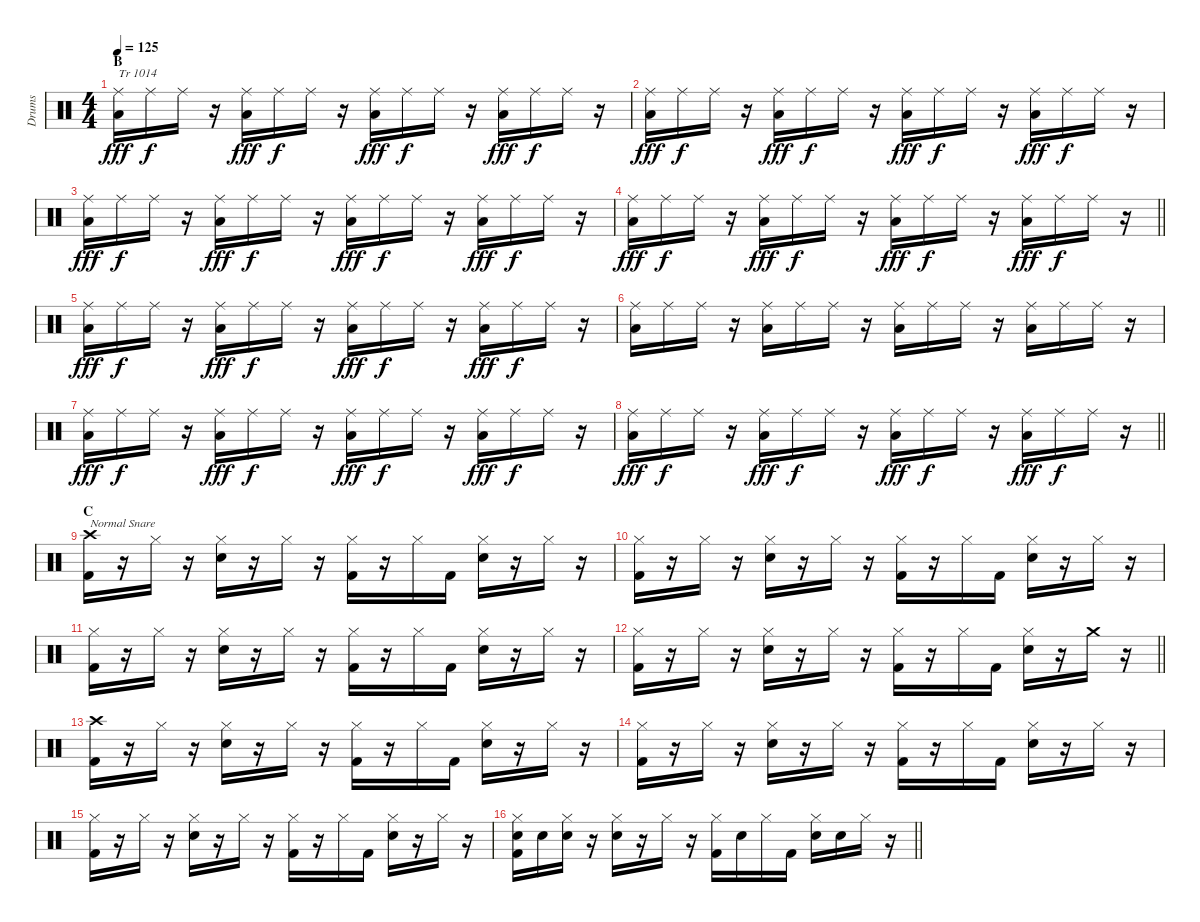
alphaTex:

\track ("Drums" "Drums") {instrument percussion}
\staff {score}
\articulation defaults
\ts (4 4)
\section ("" "B")
\tempo 125
\clef neutral
\ks c
("Ride (middle)" "Low Tom (hit)").16{txt "Tr 1014" dy fff} "Ride (middle)".16{dy f} "Ride (middle)".16 r.16 ("Ride (middle)" "Low Tom (hit)").16{dy fff} "Ride (middle)".16{dy f} "Ride (middle)".16 r.16 ("Ride (middle)" "Low Tom (hit)").16{dy fff} "Ride (middle)".16{dy f} "Ride (middle)".16 r.16 ("Ride (middle)" "Low Tom (hit)").16{dy fff} "Ride (middle)".16{dy f} "Ride (middle)".16 r.16 |
("Ride (middle)" "Low Tom (hit)").16{dy fff} "Ride (middle)".16{dy f} "Ride (middle)".16 r.16 ("Ride (middle)" "Low Tom (hit)").16{dy fff} "Ride (middle)".16{dy f} "Ride (middle)".16 r.16 ("Ride (middle)" "Low Tom (hit)").16{dy fff} "Ride (middle)".16{dy f} "Ride (middle)".16 r.16 ("Ride (middle)" "Low Tom (hit)").16{dy fff} "Ride (middle)".16{dy f} "Ride (middle)".16 r.16 |
("Ride (middle)" "Low Tom (hit)").16{dy fff} "Ride (middle)".16{dy f} "Ride (middle)".16 r.16 ("Ride (middle)" "Low Tom (hit)").16{dy fff} "Ride (middle)".16{dy f} "Ride (middle)".16 r.16 ("Ride (middle)" "Low Tom (hit)").16{dy fff} "Ride (middle)".16{dy f} "Ride (middle)".16 r.16 ("Ride (middle)" "Low Tom (hit)").16{dy fff} "Ride (middle)".16{dy f} "Ride (middle)".16 r.16 |
\barLineRight lightlight
("Ride (middle)" "Low Tom (hit)").16{dy fff} "Ride (middle)".16{dy f} "Ride (middle)".16 r.16 ("Ride (middle)" "Low Tom (hit)").16{dy fff} "Ride (middle)".16{dy f} "Ride (middle)".16 r.16 ("Ride (middle)" "Low Tom (hit)").16{dy fff} "Ride (middle)".16{dy f} "Ride (middle)".16 r.16 ("Ride (middle)" "Low Tom (hit)").16{dy fff} "Ride (middle)".16{dy f} "Ride (middle)".16 r.16 |
("Ride (middle)" "Low Tom (hit)").16{dy fff} "Ride (middle)".16{dy f} "Ride (middle)".16 r.16 ("Ride (middle)" "Low Tom (hit)").16{dy fff} "Ride (middle)".16{dy f} "Ride (middle)".16 r.16 ("Ride (middle)" "Low Tom (hit)").16{dy fff} "Ride (middle)".16{dy f} "Ride (middle)".16 r.16 ("Ride (middle)" "Low Tom (hit)").16{dy fff} "Ride (middle)".16{dy f} "Ride (middle)".16 r.16 |
("Ride (middle)" "Low Tom (hit)").16 "Ride (middle)".16 "Ride (middle)".16 r.16 ("Ride (middle)" "Low Tom (hit)").16 "Ride (middle)".16 "Ride (middle)".16 r.16 ("Ride (middle)" "Low Tom (hit)").16 "Ride (middle)".16 "Ride (middle)".16 r.16 ("Ride (middle)" "Low Tom (hit)").16 "Ride (middle)".16 "Ride (middle)".16 r.16 |
("Ride (middle)" "Low Tom (hit)").16{dy fff} "Ride (middle)".16{dy f} "Ride (middle)".16 r.16 ("Ride (middle)" "Low Tom (hit)").16{dy fff} "Ride (middle)".16{dy f} "Ride (middle)".16 r.16 ("Ride (middle)" "Low Tom (hit)").16{dy fff} "Ride (middle)".16{dy f} "Ride (middle)".16 r.16 ("Ride (middle)" "Low Tom (hit)").16{dy fff} "Ride (middle)".16{dy f} "Ride (middle)".16 r.16 |
\barLineRight lightlight
("Ride (middle)" "Low Tom (hit)").16{dy fff} "Ride (middle)".16{dy f} "Ride (middle)".16 r.16 ("Ride (middle)" "Low Tom (hit)").16{dy fff} "Ride (middle)".16{dy f} "Ride (middle)".16 r.16 ("Ride (middle)" "Low Tom (hit)").16{dy fff} "Ride (middle)".16{dy f} "Ride (middle)".16 r.16 ("Ride (middle)" "Low Tom (hit)").16{dy fff} "Ride (middle)".16{dy f} "Ride (middle)".16 r.16 |
\section ("" "C")
("Crash high (hit)" "Kick (hit) 2").16{txt "Normal Snare"} r.16 "Hi-Hat (closed)".16 r.16 ("Hi-Hat (closed)" "Electric Snare (hit)").16 r.16 "Hi-Hat (closed)".16 r.16 ("Hi-Hat (closed)" "Kick (hit) 2").16 r.16 "Hi-Hat (closed)".16 "Kick (hit) 2".16 ("Hi-Hat (closed)" "Electric Snare (hit)").16 r.16 "Hi-Hat (closed)".16 r.16 |
("Hi-Hat (closed)" "Kick (hit) 2").16 r.16 "Hi-Hat (closed)".16 r.16 ("Hi-Hat (closed)" "Electric Snare (hit)").16 r.16 "Hi-Hat (closed)".16 r.16 ("Hi-Hat (closed)" "Kick (hit) 2").16 r.16 "Hi-Hat (closed)".16 "Kick (hit) 2".16 ("Hi-Hat (closed)" "Electric Snare (hit)").16 r.16 "Hi-Hat (closed)".16 r.16 |
("Hi-Hat (closed)" "Kick (hit) 2").16 r.16 "Hi-Hat (closed)".16 r.16 ("Hi-Hat (closed)" "Electric Snare (hit)").16 r.16 "Hi-Hat (closed)".16 r.16 ("Hi-Hat (closed)" "Kick (hit) 2").16 r.16 "Hi-Hat (closed)".16 "Kick (hit) 2".16 ("Hi-Hat (closed)" "Electric Snare (hit)").16 r.16 "Hi-Hat (closed)".16 r.16 |
\barLineRight lightlight
("Hi-Hat (closed)" "Kick (hit) 2").16 r.16 "Hi-Hat (closed)".16 r.16 ("Hi-Hat (closed)" "Electric Snare (hit)").16 r.16 "Hi-Hat (closed)".16 r.16 ("Hi-Hat (closed)" "Kick (hit) 2").16 r.16 "Hi-Hat (closed)".16 "Kick (hit) 2".16 ("Hi-Hat (closed)" "Electric Snare (hit)").16 r.16 "Crash medium (hit)".16 r.16 |
("Crash high (hit)" "Kick (hit) 2").16 r.16 "Hi-Hat (closed)".16 r.16 ("Hi-Hat (closed)" "Electric Snare (hit)").16 r.16 "Hi-Hat (closed)".16 r.16 ("Hi-Hat (closed)" "Kick (hit) 2").16 r.16 "Hi-Hat (closed)".16 "Kick (hit) 2".16 ("Hi-Hat (closed)" "Electric Snare (hit)").16 r.16 "Hi-Hat (closed)".16 r.16 |
("Hi-Hat (closed)" "Kick (hit) 2").16 r.16 "Hi-Hat (closed)".16 r.16 ("Hi-Hat (closed)" "Electric Snare (hit)").16 r.16 "Hi-Hat (closed)".16 r.16 ("Hi-Hat (closed)" "Kick (hit) 2").16 r.16 "Hi-Hat (closed)".16 "Kick (hit) 2".16 ("Hi-Hat (closed)" "Electric Snare (hit)").16 r.16 "Hi-Hat (closed)".16 r.16 |
("Hi-Hat (closed)" "Kick (hit) 2").16 r.16 "Hi-Hat (closed)".16 r.16 ("Hi-Hat (closed)" "Electric Snare (hit)").16 r.16 "Hi-Hat (closed)".16 r.16 ("Hi-Hat (closed)" "Kick (hit) 2").16 r.16 "Hi-Hat (closed)".16 "Kick (hit) 2".16 ("Hi-Hat (closed)" "Electric Snare (hit)").16 r.16 "Hi-Hat (closed)".16 r.16 |
\barLineRight lightlight
("Hi-Hat (closed)" "Electric Snare (hit)" "Kick (hit) 2").16 "Electric Snare (hit)".16 ("Hi-Hat (closed)" "Electric Snare (hit)").16 r.16 ("Hi-Hat (closed)" "Electric Snare (hit)").16 r.16 "Hi-Hat (closed)".16 r.16 ("Hi-Hat (closed)" "Kick (hit) 2").16 "Electric Snare (hit)".16 "Hi-Hat (closed)".16 "Kick (hit) 2".16 ("Hi-Hat (closed)" "Electric Snare (hit)").16 "Electric Snare (hit)".16 "Hi-Hat (closed)".16 r.16
